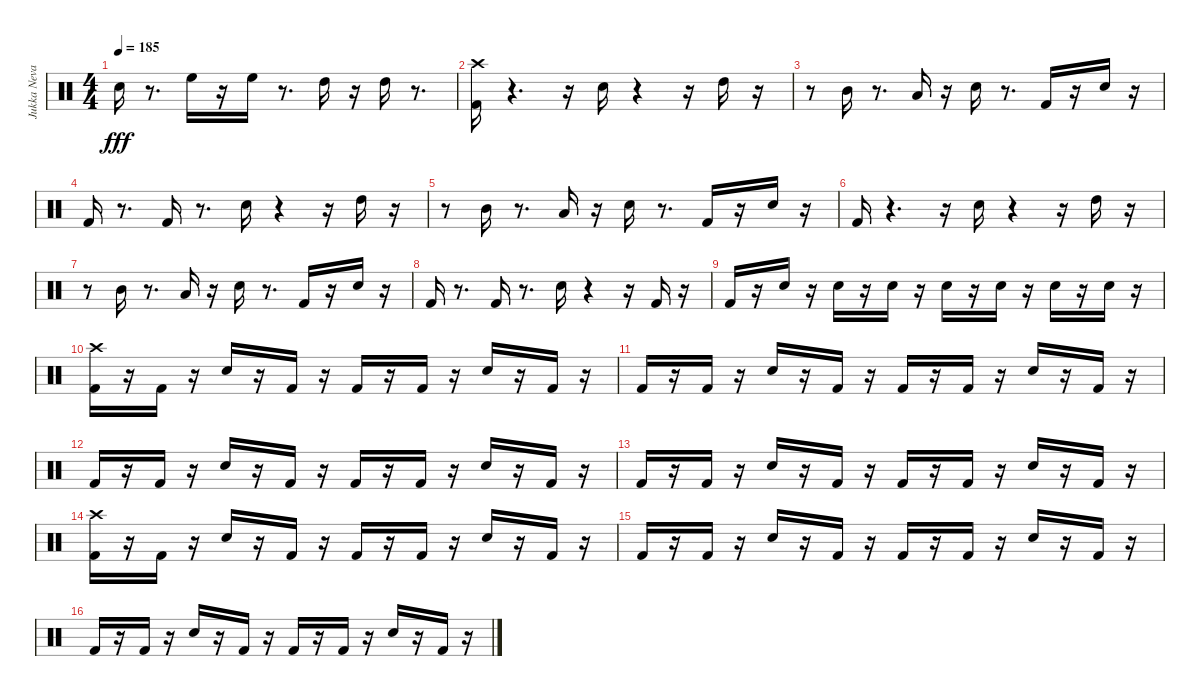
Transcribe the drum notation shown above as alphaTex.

\track ("Jukka Nevalinen" "Jukka Neva") {instrument percussion}
\staff {score}
\articulation defaults
\ts (4 4)
\tempo 185
\clef neutral
\ks c "Snare (hit) 2".16{dy fff}
r.8{d} "High Floor Tom (hit)".16 r.16 "High Floor Tom (hit)".16 r.8{d} "High Tom (hit)".16 r.16 "High Tom (hit)".16 r.8{d} |
("Crash high (hit)" "Kick (hit) 2").16 r.4{d} r.16 "Snare (hit) 2".16 r.4 r.16 "High Tom (hit)".16 r.16 |
r.8 "Mid Tom (hit)".16 r.8{d} "Low Tom (hit)".16 r.16 "Snare (hit) 2".16 r.8{d} "Kick (hit) 2".16 r.16 "Snare (hit) 2".16 r.16 |
"Kick (hit) 2".16 r.8{d} "Kick (hit) 2".16 r.8{d} "Snare (hit) 2".16 r.4 r.16 "High Tom (hit)".16 r.16 |
r.8 "Mid Tom (hit)".16 r.8{d} "Low Tom (hit)".16 r.16 "Snare (hit) 2".16 r.8{d} "Kick (hit) 2".16 r.16 "Snare (hit) 2".16 r.16 |
"Kick (hit) 2".16 r.4{d} r.16 "Snare (hit) 2".16 r.4 r.16 "High Tom (hit)".16 r.16 |
r.8 "Mid Tom (hit)".16 r.8{d} "Low Tom (hit)".16 r.16 "Snare (hit) 2".16 r.8{d} "Kick (hit) 2".16 r.16 "Snare (hit) 2".16 r.16 |
"Kick (hit) 2".16 r.8{d} "Kick (hit) 2".16 r.8{d} "Snare (hit) 2".16 r.4 r.16 "Kick (hit) 2".16 r.16 |
"Kick (hit) 2".16 r.16 "Snare (hit) 2".16 r.16 "Snare (hit) 2".16 r.16 "Snare (hit) 2".16 r.16 "Snare (hit) 2".16 r.16 "Snare (hit) 2".16 r.16 "Snare (hit) 2".16 r.16 "Snare (hit) 2".16 r.16 |
("Kick (hit) 2" "Crash high (hit)").16 r.16 "Kick (hit) 2".16 r.16 "Snare (hit) 2".16 r.16 "Kick (hit) 2".16 r.16 "Kick (hit) 2".16 r.16 "Kick (hit) 2".16 r.16 "Snare (hit) 2".16 r.16 "Kick (hit) 2".16 r.16 |
"Kick (hit) 2".16 r.16 "Kick (hit) 2".16 r.16 "Snare (hit) 2".16 r.16 "Kick (hit) 2".16 r.16 "Kick (hit) 2".16 r.16 "Kick (hit) 2".16 r.16 "Snare (hit) 2".16 r.16 "Kick (hit) 2".16 r.16 |
"Kick (hit) 2".16 r.16 "Kick (hit) 2".16 r.16 "Snare (hit) 2".16 r.16 "Kick (hit) 2".16 r.16 "Kick (hit) 2".16 r.16 "Kick (hit) 2".16 r.16 "Snare (hit) 2".16 r.16 "Kick (hit) 2".16 r.16 |
"Kick (hit) 2".16 r.16 "Kick (hit) 2".16 r.16 "Snare (hit) 2".16 r.16 "Kick (hit) 2".16 r.16 "Kick (hit) 2".16 r.16 "Kick (hit) 2".16 r.16 "Snare (hit) 2".16 r.16 "Kick (hit) 2".16 r.16 |
("Kick (hit) 2" "Crash high (hit)").16 r.16 "Kick (hit) 2".16 r.16 "Snare (hit) 2".16 r.16 "Kick (hit) 2".16 r.16 "Kick (hit) 2".16 r.16 "Kick (hit) 2".16 r.16 "Snare (hit) 2".16 r.16 "Kick (hit) 2".16 r.16 |
"Kick (hit) 2".16 r.16 "Kick (hit) 2".16 r.16 "Snare (hit) 2".16 r.16 "Kick (hit) 2".16 r.16 "Kick (hit) 2".16 r.16 "Kick (hit) 2".16 r.16 "Snare (hit) 2".16 r.16 "Kick (hit) 2".16 r.16 |
"Kick (hit) 2".16 r.16 "Kick (hit) 2".16 r.16 "Snare (hit) 2".16 r.16 "Kick (hit) 2".16 r.16 "Kick (hit) 2".16 r.16 "Kick (hit) 2".16 r.16 "Snare (hit) 2".16 r.16 "Kick (hit) 2".16 r.16
